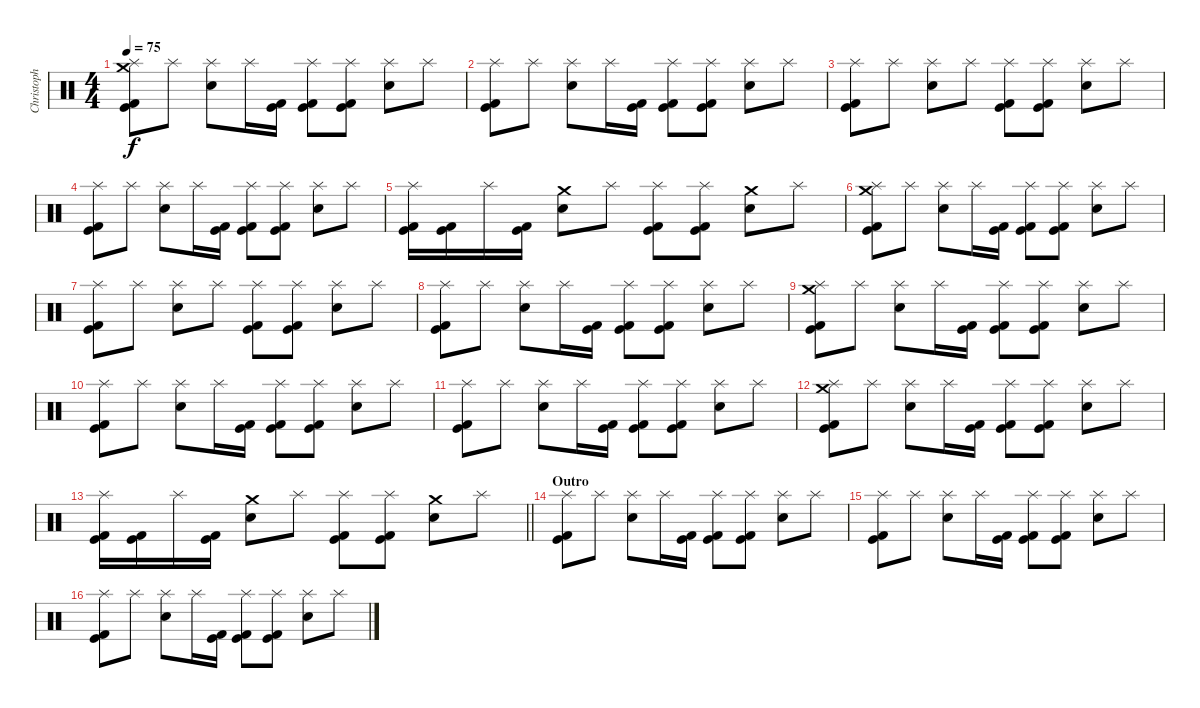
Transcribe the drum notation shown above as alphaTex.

\track ("Christoph" "Christoph") {instrument percussion}
\staff {score}
\articulation defaults
\ts (4 4)
\tempo 75
\clef neutral
\ks c
("Splash (hit)" "Kick (hit)" "Kick (hit) 2" "Crash medium (hit)").8{dy f} "Splash (hit)".8 ("Splash (hit)" "Snare (hit) 2").8 "Splash (hit)".16 ("Kick (hit)" "Kick (hit) 2").16 ("Kick (hit) 2" "Kick (hit)" "Splash (hit)").8 ("Kick (hit) 2" "Kick (hit)" "Splash (hit)").8 ("Snare (hit) 2" "Splash (hit)").8 "Splash (hit)".8 |
("Splash (hit)" "Kick (hit)" "Kick (hit) 2").8 "Splash (hit)".8 ("Splash (hit)" "Snare (hit) 2").8 "Splash (hit)".16 ("Kick (hit)" "Kick (hit) 2").16 ("Kick (hit) 2" "Kick (hit)" "Splash (hit)").8 ("Kick (hit) 2" "Kick (hit)" "Splash (hit)").8 ("Snare (hit) 2" "Splash (hit)").8 "Splash (hit)".8 |
("Splash (hit)" "Kick (hit)" "Kick (hit) 2").8 "Splash (hit)".8 ("Splash (hit)" "Snare (hit) 2").8 "Splash (hit)".8 ("Splash (hit)" "Kick (hit)" "Kick (hit) 2").8 ("Splash (hit)" "Kick (hit) 2" "Kick (hit)").8 ("Splash (hit)" "Snare (hit) 2").8 "Splash (hit)".8 |
("Splash (hit)" "Kick (hit)" "Kick (hit) 2").8 "Splash (hit)".8 ("Splash (hit)" "Snare (hit) 2").8 "Splash (hit)".16 ("Kick (hit)" "Kick (hit) 2").16 ("Kick (hit) 2" "Kick (hit)" "Splash (hit)").8 ("Kick (hit) 2" "Kick (hit)" "Splash (hit)").8 ("Snare (hit) 2" "Splash (hit)").8 "Splash (hit)".8 |
("Splash (hit)" "Kick (hit)" "Kick (hit) 2").16 ("Kick (hit) 2" "Kick (hit)").16 "Splash (hit)".16 ("Kick (hit)" "Kick (hit) 2").16 ("Snare (hit) 2" "Crash medium (hit)").8 "Splash (hit)".8 ("Kick (hit) 2" "Kick (hit)" "Splash (hit)").8 ("Kick (hit)" "Kick (hit) 2" "Splash (hit)").8 ("Snare (hit) 2" "Crash medium (hit)").8 "Splash (hit)".8 |
("Splash (hit)" "Kick (hit)" "Kick (hit) 2" "Crash medium (hit)").8 "Splash (hit)".8 ("Splash (hit)" "Snare (hit) 2").8 "Splash (hit)".16 ("Kick (hit)" "Kick (hit) 2").16 ("Kick (hit) 2" "Kick (hit)" "Splash (hit)").8 ("Kick (hit) 2" "Kick (hit)" "Splash (hit)").8 ("Snare (hit) 2" "Splash (hit)").8 "Splash (hit)".8 |
("Splash (hit)" "Kick (hit)" "Kick (hit) 2").8 "Splash (hit)".8 ("Splash (hit)" "Snare (hit) 2").8 "Splash (hit)".8 ("Splash (hit)" "Kick (hit)" "Kick (hit) 2").8 ("Splash (hit)" "Kick (hit) 2" "Kick (hit)").8 ("Splash (hit)" "Snare (hit) 2").8 "Splash (hit)".8 |
("Splash (hit)" "Kick (hit)" "Kick (hit) 2").8 "Splash (hit)".8 ("Splash (hit)" "Snare (hit) 2").8 "Splash (hit)".16 ("Kick (hit)" "Kick (hit) 2").16 ("Kick (hit) 2" "Kick (hit)" "Splash (hit)").8 ("Kick (hit) 2" "Kick (hit)" "Splash (hit)").8 ("Snare (hit) 2" "Splash (hit)").8 "Splash (hit)".8 |
("Splash (hit)" "Kick (hit)" "Kick (hit) 2" "Crash medium (hit)").8 "Splash (hit)".8 ("Splash (hit)" "Snare (hit) 2").8 "Splash (hit)".16 ("Kick (hit)" "Kick (hit) 2").16 ("Kick (hit) 2" "Kick (hit)" "Splash (hit)").8 ("Kick (hit) 2" "Kick (hit)" "Splash (hit)").8 ("Snare (hit) 2" "Splash (hit)").8 "Splash (hit)".8 |
("Splash (hit)" "Kick (hit)" "Kick (hit) 2").8 "Splash (hit)".8 ("Splash (hit)" "Snare (hit) 2").8 "Splash (hit)".16 ("Kick (hit)" "Kick (hit) 2").16 ("Kick (hit) 2" "Kick (hit)" "Splash (hit)").8 ("Kick (hit) 2" "Kick (hit)" "Splash (hit)").8 ("Snare (hit) 2" "Splash (hit)").8 "Splash (hit)".8 |
("Splash (hit)" "Kick (hit)" "Kick (hit) 2").8 "Splash (hit)".8 ("Splash (hit)" "Snare (hit) 2").8 "Splash (hit)".16 ("Kick (hit)" "Kick (hit) 2").16 ("Kick (hit) 2" "Kick (hit)" "Splash (hit)").8 ("Kick (hit) 2" "Kick (hit)" "Splash (hit)").8 ("Snare (hit) 2" "Splash (hit)").8 "Splash (hit)".8 |
("Splash (hit)" "Kick (hit)" "Kick (hit) 2" "Crash medium (hit)").8 "Splash (hit)".8 ("Splash (hit)" "Snare (hit) 2").8 "Splash (hit)".16 ("Kick (hit)" "Kick (hit) 2").16 ("Kick (hit) 2" "Kick (hit)" "Splash (hit)").8 ("Kick (hit) 2" "Kick (hit)" "Splash (hit)").8 ("Snare (hit) 2" "Splash (hit)").8 "Splash (hit)".8 |
\barLineRight lightlight
("Splash (hit)" "Kick (hit)" "Kick (hit) 2").16 ("Kick (hit) 2" "Kick (hit)").16 "Splash (hit)".16 ("Kick (hit)" "Kick (hit) 2").16 ("Snare (hit) 2" "Crash medium (hit)").8 "Splash (hit)".8 ("Kick (hit) 2" "Kick (hit)" "Splash (hit)").8 ("Kick (hit)" "Kick (hit) 2" "Splash (hit)").8 ("Snare (hit) 2" "Crash medium (hit)").8 "Splash (hit)".8 |
\section ("" "Outro")
("Splash (hit)" "Kick (hit)" "Kick (hit) 2").8 "Splash (hit)".8 ("Splash (hit)" "Snare (hit) 2").8 "Splash (hit)".16 ("Kick (hit)" "Kick (hit) 2").16 ("Kick (hit) 2" "Kick (hit)" "Splash (hit)").8 ("Kick (hit) 2" "Kick (hit)" "Splash (hit)").8 ("Snare (hit) 2" "Splash (hit)").8 "Splash (hit)".8 |
("Splash (hit)" "Kick (hit)" "Kick (hit) 2").8 "Splash (hit)".8 ("Splash (hit)" "Snare (hit) 2").8 "Splash (hit)".16 ("Kick (hit)" "Kick (hit) 2").16 ("Kick (hit) 2" "Kick (hit)" "Splash (hit)").8 ("Kick (hit) 2" "Kick (hit)" "Splash (hit)").8 ("Snare (hit) 2" "Splash (hit)").8 "Splash (hit)".8 |
("Splash (hit)" "Kick (hit)" "Kick (hit) 2").8 "Splash (hit)".8 ("Splash (hit)" "Snare (hit) 2").8 "Splash (hit)".16 ("Kick (hit)" "Kick (hit) 2").16 ("Kick (hit) 2" "Kick (hit)" "Splash (hit)").8 ("Kick (hit) 2" "Kick (hit)" "Splash (hit)").8 ("Snare (hit) 2" "Splash (hit)").8 "Splash (hit)".8
